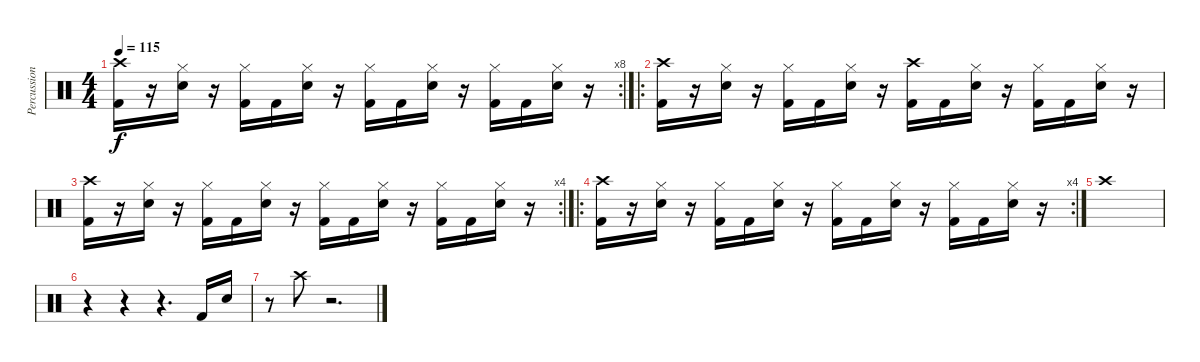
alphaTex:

\track ("Percussion" "Percussion") {instrument percussion}
\staff {score}
\articulation defaults
\rc 8
\ts (4 4)
\tempo 115
\clef neutral
\ks c
("Crash high (hit)" "Kick (hit) 2").16{dy f} r.16 ("Hi-Hat (closed)" "Snare (hit) 2").16 r.16 ("Hi-Hat (closed)" "Kick (hit) 2").16 "Kick (hit) 2".16 ("Hi-Hat (closed)" "Snare (hit) 2").16 r.16 ("Hi-Hat (closed)" "Kick (hit) 2").16 "Kick (hit) 2".16 ("Hi-Hat (closed)" "Snare (hit) 2").16 r.16 ("Hi-Hat (closed)" "Kick (hit) 2").16 "Kick (hit) 2".16 ("Hi-Hat (closed)" "Snare (hit) 2").16 r.16 |
\ro
("Crash high (hit)" "Kick (hit) 2").16 r.16 ("Hi-Hat (closed)" "Snare (hit) 2").16 r.16 ("Hi-Hat (closed)" "Kick (hit) 2").16 "Kick (hit) 2".16 ("Hi-Hat (closed)" "Snare (hit) 2").16 r.16 ("Crash high (hit)" "Kick (hit) 2").16 "Kick (hit) 2".16 ("Hi-Hat (closed)" "Snare (hit) 2").16 r.16 ("Hi-Hat (closed)" "Kick (hit) 2").16 "Kick (hit) 2".16 ("Hi-Hat (closed)" "Snare (hit) 2").16 r.16 |
\rc 4
("Crash high (hit)" "Kick (hit) 2").16 r.16 ("Hi-Hat (closed)" "Snare (hit) 2").16 r.16 ("Hi-Hat (closed)" "Kick (hit) 2").16 "Kick (hit) 2".16 ("Hi-Hat (closed)" "Snare (hit) 2").16 r.16 ("Hi-Hat (closed)" "Kick (hit) 2").16 "Kick (hit) 2".16 ("Hi-Hat (closed)" "Snare (hit) 2").16 r.16 ("Hi-Hat (closed)" "Kick (hit) 2").16 "Kick (hit) 2".16 ("Hi-Hat (closed)" "Snare (hit) 2").16 r.16 |
\ro
\rc 4
("Crash high (hit)" "Kick (hit) 2").16 r.16 ("Hi-Hat (closed)" "Snare (hit) 2").16 r.16 ("Hi-Hat (closed)" "Kick (hit) 2").16 "Kick (hit) 2".16 ("Hi-Hat (closed)" "Snare (hit) 2").16 r.16 ("Hi-Hat (closed)" "Kick (hit) 2").16 "Kick (hit) 2".16 ("Hi-Hat (closed)" "Snare (hit) 2").16 r.16 ("Hi-Hat (closed)" "Kick (hit) 2").16 "Kick (hit) 2".16 ("Hi-Hat (closed)" "Snare (hit) 2").16 r.16 |
"Crash high (hit)".1 |
r.4 r.4 r.4{d} "Kick (hit) 2".16 "Snare (hit) 2".16 |
r.8 "Crash high (hit)".8 r.2{d}
